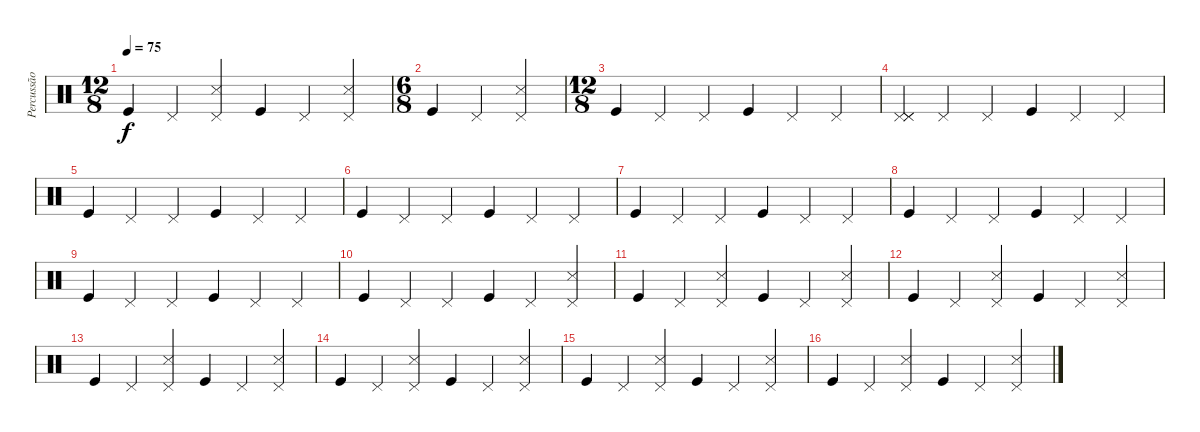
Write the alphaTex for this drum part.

\track ("Percussão" "Percussão") {instrument percussion}
\staff {score}
\articulation defaults
\ts (12 8)
\tempo 75
\clef neutral
\ks c "Kick (hit)".4{dy f} "Pedal Hi-Hat (hit)".4
("Pedal Hi-Hat (hit)" "Metronome (hit)").4 "Kick (hit)".4 "Pedal Hi-Hat (hit)".4 ("Pedal Hi-Hat (hit)" "Metronome (hit)").4 |
\ts (6 8)
"Kick (hit)".4 "Pedal Hi-Hat (hit)".4 ("Pedal Hi-Hat (hit)" "Metronome (hit)").4 |
\ts (12 8)
"Kick (hit)".4 "Pedal Hi-Hat (hit)".4 "Pedal Hi-Hat (hit)".4 "Kick (hit)".4 "Pedal Hi-Hat (hit)".4 "Pedal Hi-Hat (hit)".4 |
("Pedal Hi-Hat (hit)" "Pedal Hi-Hat (hit)" "Pedal Hi-Hat (hit)").4 "Pedal Hi-Hat (hit)".4 "Pedal Hi-Hat (hit)".4 "Kick (hit)".4 "Pedal Hi-Hat (hit)".4 "Pedal Hi-Hat (hit)".4 |
"Kick (hit)".4 "Pedal Hi-Hat (hit)".4 "Pedal Hi-Hat (hit)".4 "Kick (hit)".4 "Pedal Hi-Hat (hit)".4 "Pedal Hi-Hat (hit)".4 |
"Kick (hit)".4 "Pedal Hi-Hat (hit)".4 "Pedal Hi-Hat (hit)".4 "Kick (hit)".4 "Pedal Hi-Hat (hit)".4 "Pedal Hi-Hat (hit)".4 |
"Kick (hit)".4 "Pedal Hi-Hat (hit)".4 "Pedal Hi-Hat (hit)".4 "Kick (hit)".4 "Pedal Hi-Hat (hit)".4 "Pedal Hi-Hat (hit)".4 |
"Kick (hit)".4 "Pedal Hi-Hat (hit)".4 "Pedal Hi-Hat (hit)".4 "Kick (hit)".4 "Pedal Hi-Hat (hit)".4 "Pedal Hi-Hat (hit)".4 |
"Kick (hit)".4 "Pedal Hi-Hat (hit)".4 "Pedal Hi-Hat (hit)".4 "Kick (hit)".4 "Pedal Hi-Hat (hit)".4 "Pedal Hi-Hat (hit)".4 |
"Kick (hit)".4 "Pedal Hi-Hat (hit)".4 "Pedal Hi-Hat (hit)".4 "Kick (hit)".4 "Pedal Hi-Hat (hit)".4 ("Pedal Hi-Hat (hit)" "Metronome (hit)").4 |
"Kick (hit)".4 "Pedal Hi-Hat (hit)".4 ("Pedal Hi-Hat (hit)" "Metronome (hit)").4 "Kick (hit)".4 "Pedal Hi-Hat (hit)".4 ("Pedal Hi-Hat (hit)" "Metronome (hit)").4 |
"Kick (hit)".4 "Pedal Hi-Hat (hit)".4 ("Pedal Hi-Hat (hit)" "Metronome (hit)").4 "Kick (hit)".4 "Pedal Hi-Hat (hit)".4 ("Pedal Hi-Hat (hit)" "Metronome (hit)").4 |
"Kick (hit)".4 "Pedal Hi-Hat (hit)".4 ("Pedal Hi-Hat (hit)" "Metronome (hit)").4 "Kick (hit)".4 "Pedal Hi-Hat (hit)".4 ("Pedal Hi-Hat (hit)" "Metronome (hit)").4 |
"Kick (hit)".4 "Pedal Hi-Hat (hit)".4 ("Pedal Hi-Hat (hit)" "Metronome (hit)").4 "Kick (hit)".4 "Pedal Hi-Hat (hit)".4 ("Pedal Hi-Hat (hit)" "Metronome (hit)").4 |
"Kick (hit)".4 "Pedal Hi-Hat (hit)".4 ("Pedal Hi-Hat (hit)" "Metronome (hit)").4 "Kick (hit)".4 "Pedal Hi-Hat (hit)".4 ("Pedal Hi-Hat (hit)" "Metronome (hit)").4 |
"Kick (hit)".4 "Pedal Hi-Hat (hit)".4 ("Pedal Hi-Hat (hit)" "Metronome (hit)").4 "Kick (hit)".4 "Pedal Hi-Hat (hit)".4 ("Pedal Hi-Hat (hit)" "Metronome (hit)").4
